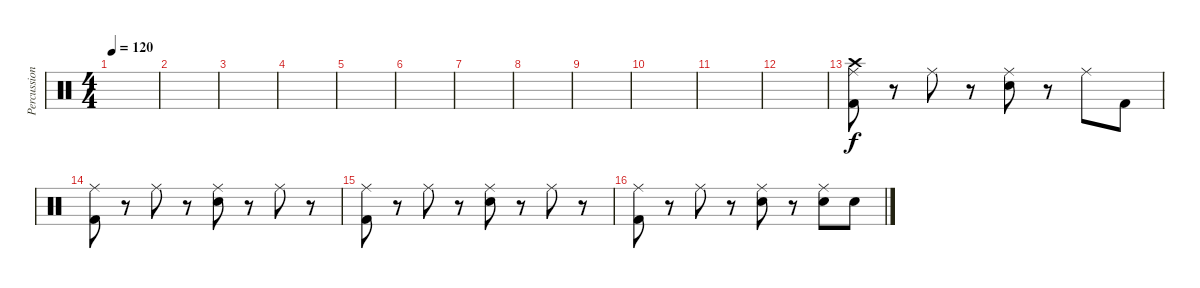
\track ("Percussion" "Percussion") {instrument percussion}
\staff {score}
\articulation defaults
\ts (4 4)
\tempo 120
\clef neutral
\ks c
|
|
|
|
|
|
|
|
|
|
|
|
("Crash high (hit)" "Ride (middle)" "Kick (hit) 2").8 r.8 "Ride (middle)".8 r.8 ("Ride (middle)" "Snare (hit) 2").8 r.8 "Ride (middle)".8 "Kick (hit) 2".8 |
("Ride (middle)" "Kick (hit) 2").8 r.8 "Ride (middle)".8 r.8 ("Ride (middle)" "Snare (hit) 2").8 r.8 "Ride (middle)".8 r.8 |
("Ride (middle)" "Kick (hit) 2").8 r.8 "Ride (middle)".8 r.8 ("Ride (middle)" "Snare (hit) 2").8 r.8 "Ride (middle)".8 r.8 |
("Ride (middle)" "Kick (hit) 2").8 r.8 "Ride (middle)".8 r.8 ("Ride (middle)" "Snare (hit) 2").8 r.8 ("Ride (middle)" "Snare (hit) 2").8 "Snare (hit) 2".8
